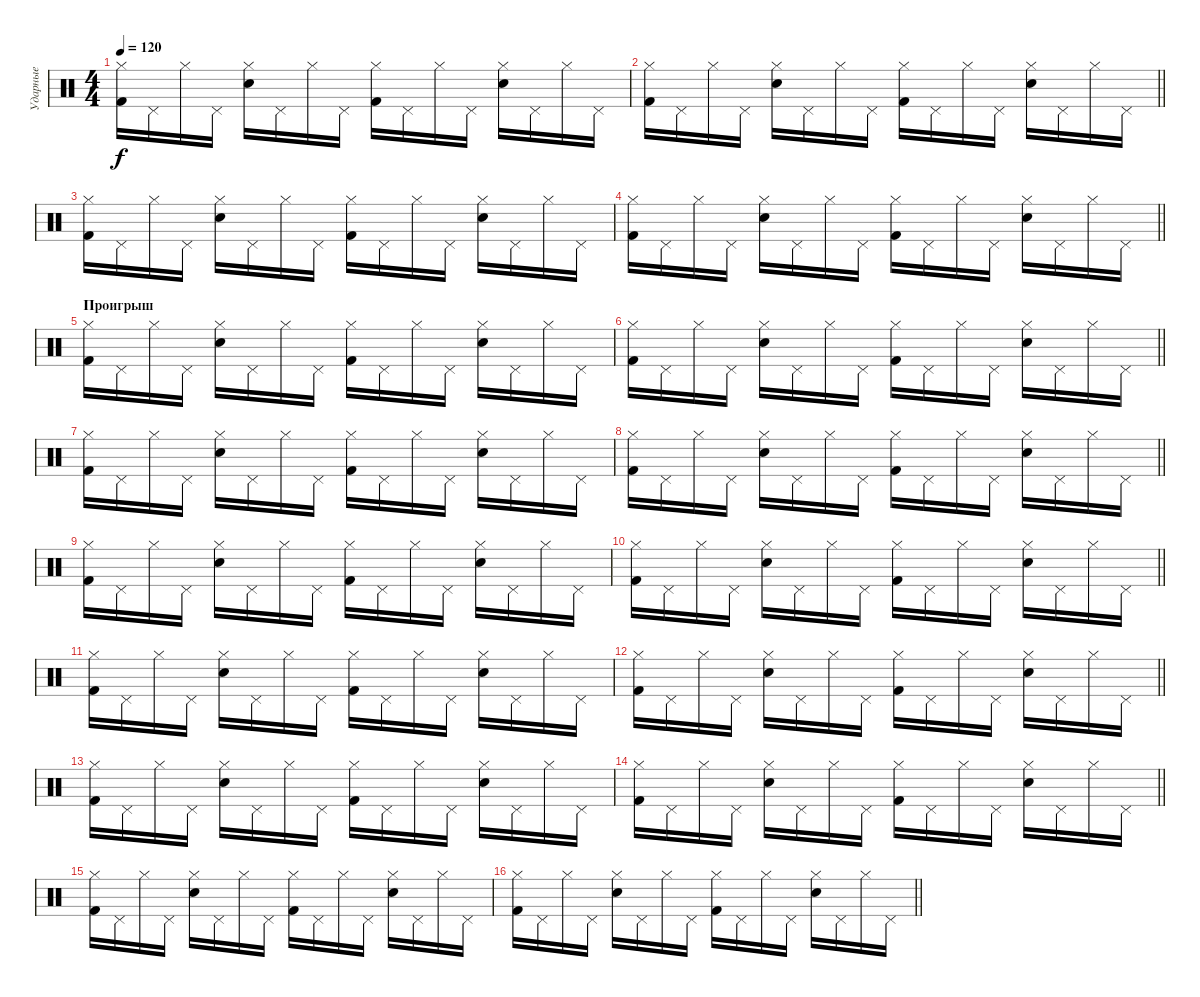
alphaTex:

\track ("Ударные" "Ударные") {instrument percussion}
\staff {score}
\articulation defaults
\ts (4 4)
\tempo 120
\clef neutral
\ks c
("Hi-Hat (closed)" "Kick (hit) 2").16{dy f} "Pedal Hi-Hat (hit)".16 "Hi-Hat (closed)".16 "Pedal Hi-Hat (hit)".16 ("Hi-Hat (closed)" "Snare (hit) 2").16 "Pedal Hi-Hat (hit)".16 "Hi-Hat (closed)".16 "Pedal Hi-Hat (hit)".16 ("Hi-Hat (closed)" "Kick (hit) 2").16 "Pedal Hi-Hat (hit)".16 "Hi-Hat (closed)".16 "Pedal Hi-Hat (hit)".16 ("Hi-Hat (closed)" "Snare (hit) 2").16 "Pedal Hi-Hat (hit)".16 "Hi-Hat (closed)".16 "Pedal Hi-Hat (hit)".16 |
\barLineRight lightlight
("Hi-Hat (closed)" "Kick (hit) 2").16 "Pedal Hi-Hat (hit)".16 "Hi-Hat (closed)".16 "Pedal Hi-Hat (hit)".16 ("Hi-Hat (closed)" "Snare (hit) 2").16 "Pedal Hi-Hat (hit)".16 "Hi-Hat (closed)".16 "Pedal Hi-Hat (hit)".16 ("Hi-Hat (closed)" "Kick (hit) 2").16 "Pedal Hi-Hat (hit)".16 "Hi-Hat (closed)".16 "Pedal Hi-Hat (hit)".16 ("Hi-Hat (closed)" "Snare (hit) 2").16 "Pedal Hi-Hat (hit)".16 "Hi-Hat (closed)".16 "Pedal Hi-Hat (hit)".16 |
("Hi-Hat (closed)" "Kick (hit) 2").16 "Pedal Hi-Hat (hit)".16 "Hi-Hat (closed)".16 "Pedal Hi-Hat (hit)".16 ("Hi-Hat (closed)" "Snare (hit) 2").16 "Pedal Hi-Hat (hit)".16 "Hi-Hat (closed)".16 "Pedal Hi-Hat (hit)".16 ("Hi-Hat (closed)" "Kick (hit) 2").16 "Pedal Hi-Hat (hit)".16 "Hi-Hat (closed)".16 "Pedal Hi-Hat (hit)".16 ("Hi-Hat (closed)" "Snare (hit) 2").16 "Pedal Hi-Hat (hit)".16 "Hi-Hat (closed)".16 "Pedal Hi-Hat (hit)".16 |
\barLineRight lightlight
("Hi-Hat (closed)" "Kick (hit) 2").16 "Pedal Hi-Hat (hit)".16 "Hi-Hat (closed)".16 "Pedal Hi-Hat (hit)".16 ("Hi-Hat (closed)" "Snare (hit) 2").16 "Pedal Hi-Hat (hit)".16 "Hi-Hat (closed)".16 "Pedal Hi-Hat (hit)".16 ("Hi-Hat (closed)" "Kick (hit) 2").16 "Pedal Hi-Hat (hit)".16 "Hi-Hat (closed)".16 "Pedal Hi-Hat (hit)".16 ("Hi-Hat (closed)" "Snare (hit) 2").16 "Pedal Hi-Hat (hit)".16 "Hi-Hat (closed)".16 "Pedal Hi-Hat (hit)".16 |
\section ("" "Проигрыш")
("Hi-Hat (closed)" "Kick (hit) 2").16 "Pedal Hi-Hat (hit)".16 "Hi-Hat (closed)".16 "Pedal Hi-Hat (hit)".16 ("Hi-Hat (closed)" "Snare (hit) 2").16 "Pedal Hi-Hat (hit)".16 "Hi-Hat (closed)".16 "Pedal Hi-Hat (hit)".16 ("Hi-Hat (closed)" "Kick (hit) 2").16 "Pedal Hi-Hat (hit)".16 "Hi-Hat (closed)".16 "Pedal Hi-Hat (hit)".16 ("Hi-Hat (closed)" "Snare (hit) 2").16 "Pedal Hi-Hat (hit)".16 "Hi-Hat (closed)".16 "Pedal Hi-Hat (hit)".16 |
\barLineRight lightlight
("Hi-Hat (closed)" "Kick (hit) 2").16 "Pedal Hi-Hat (hit)".16 "Hi-Hat (closed)".16 "Pedal Hi-Hat (hit)".16 ("Hi-Hat (closed)" "Snare (hit) 2").16 "Pedal Hi-Hat (hit)".16 "Hi-Hat (closed)".16 "Pedal Hi-Hat (hit)".16 ("Hi-Hat (closed)" "Kick (hit) 2").16 "Pedal Hi-Hat (hit)".16 "Hi-Hat (closed)".16 "Pedal Hi-Hat (hit)".16 ("Hi-Hat (closed)" "Snare (hit) 2").16 "Pedal Hi-Hat (hit)".16 "Hi-Hat (closed)".16 "Pedal Hi-Hat (hit)".16 |
("Hi-Hat (closed)" "Kick (hit) 2").16 "Pedal Hi-Hat (hit)".16 "Hi-Hat (closed)".16 "Pedal Hi-Hat (hit)".16 ("Hi-Hat (closed)" "Snare (hit) 2").16 "Pedal Hi-Hat (hit)".16 "Hi-Hat (closed)".16 "Pedal Hi-Hat (hit)".16 ("Hi-Hat (closed)" "Kick (hit) 2").16 "Pedal Hi-Hat (hit)".16 "Hi-Hat (closed)".16 "Pedal Hi-Hat (hit)".16 ("Hi-Hat (closed)" "Snare (hit) 2").16 "Pedal Hi-Hat (hit)".16 "Hi-Hat (closed)".16 "Pedal Hi-Hat (hit)".16 |
\barLineRight lightlight
("Hi-Hat (closed)" "Kick (hit) 2").16 "Pedal Hi-Hat (hit)".16 "Hi-Hat (closed)".16 "Pedal Hi-Hat (hit)".16 ("Hi-Hat (closed)" "Snare (hit) 2").16 "Pedal Hi-Hat (hit)".16 "Hi-Hat (closed)".16 "Pedal Hi-Hat (hit)".16 ("Hi-Hat (closed)" "Kick (hit) 2").16 "Pedal Hi-Hat (hit)".16 "Hi-Hat (closed)".16 "Pedal Hi-Hat (hit)".16 ("Hi-Hat (closed)" "Snare (hit) 2").16 "Pedal Hi-Hat (hit)".16 "Hi-Hat (closed)".16 "Pedal Hi-Hat (hit)".16 |
("Hi-Hat (closed)" "Kick (hit) 2").16 "Pedal Hi-Hat (hit)".16 "Hi-Hat (closed)".16 "Pedal Hi-Hat (hit)".16 ("Hi-Hat (closed)" "Snare (hit) 2").16 "Pedal Hi-Hat (hit)".16 "Hi-Hat (closed)".16 "Pedal Hi-Hat (hit)".16 ("Hi-Hat (closed)" "Kick (hit) 2").16 "Pedal Hi-Hat (hit)".16 "Hi-Hat (closed)".16 "Pedal Hi-Hat (hit)".16 ("Hi-Hat (closed)" "Snare (hit) 2").16 "Pedal Hi-Hat (hit)".16 "Hi-Hat (closed)".16 "Pedal Hi-Hat (hit)".16 |
\barLineRight lightlight
("Hi-Hat (closed)" "Kick (hit) 2").16 "Pedal Hi-Hat (hit)".16 "Hi-Hat (closed)".16 "Pedal Hi-Hat (hit)".16 ("Hi-Hat (closed)" "Snare (hit) 2").16 "Pedal Hi-Hat (hit)".16 "Hi-Hat (closed)".16 "Pedal Hi-Hat (hit)".16 ("Hi-Hat (closed)" "Kick (hit) 2").16 "Pedal Hi-Hat (hit)".16 "Hi-Hat (closed)".16 "Pedal Hi-Hat (hit)".16 ("Hi-Hat (closed)" "Snare (hit) 2").16 "Pedal Hi-Hat (hit)".16 "Hi-Hat (closed)".16 "Pedal Hi-Hat (hit)".16 |
("Hi-Hat (closed)" "Kick (hit) 2").16 "Pedal Hi-Hat (hit)".16 "Hi-Hat (closed)".16 "Pedal Hi-Hat (hit)".16 ("Hi-Hat (closed)" "Snare (hit) 2").16 "Pedal Hi-Hat (hit)".16 "Hi-Hat (closed)".16 "Pedal Hi-Hat (hit)".16 ("Hi-Hat (closed)" "Kick (hit) 2").16 "Pedal Hi-Hat (hit)".16 "Hi-Hat (closed)".16 "Pedal Hi-Hat (hit)".16 ("Hi-Hat (closed)" "Snare (hit) 2").16 "Pedal Hi-Hat (hit)".16 "Hi-Hat (closed)".16 "Pedal Hi-Hat (hit)".16 |
\barLineRight lightlight
("Hi-Hat (closed)" "Kick (hit) 2").16 "Pedal Hi-Hat (hit)".16 "Hi-Hat (closed)".16 "Pedal Hi-Hat (hit)".16 ("Hi-Hat (closed)" "Snare (hit) 2").16 "Pedal Hi-Hat (hit)".16 "Hi-Hat (closed)".16 "Pedal Hi-Hat (hit)".16 ("Hi-Hat (closed)" "Kick (hit) 2").16 "Pedal Hi-Hat (hit)".16 "Hi-Hat (closed)".16 "Pedal Hi-Hat (hit)".16 ("Hi-Hat (closed)" "Snare (hit) 2").16 "Pedal Hi-Hat (hit)".16 "Hi-Hat (closed)".16 "Pedal Hi-Hat (hit)".16 |
("Hi-Hat (closed)" "Kick (hit) 2").16 "Pedal Hi-Hat (hit)".16 "Hi-Hat (closed)".16 "Pedal Hi-Hat (hit)".16 ("Hi-Hat (closed)" "Snare (hit) 2").16 "Pedal Hi-Hat (hit)".16 "Hi-Hat (closed)".16 "Pedal Hi-Hat (hit)".16 ("Hi-Hat (closed)" "Kick (hit) 2").16 "Pedal Hi-Hat (hit)".16 "Hi-Hat (closed)".16 "Pedal Hi-Hat (hit)".16 ("Hi-Hat (closed)" "Snare (hit) 2").16 "Pedal Hi-Hat (hit)".16 "Hi-Hat (closed)".16 "Pedal Hi-Hat (hit)".16 |
\barLineRight lightlight
("Hi-Hat (closed)" "Kick (hit) 2").16 "Pedal Hi-Hat (hit)".16 "Hi-Hat (closed)".16 "Pedal Hi-Hat (hit)".16 ("Hi-Hat (closed)" "Snare (hit) 2").16 "Pedal Hi-Hat (hit)".16 "Hi-Hat (closed)".16 "Pedal Hi-Hat (hit)".16 ("Hi-Hat (closed)" "Kick (hit) 2").16 "Pedal Hi-Hat (hit)".16 "Hi-Hat (closed)".16 "Pedal Hi-Hat (hit)".16 ("Hi-Hat (closed)" "Snare (hit) 2").16 "Pedal Hi-Hat (hit)".16 "Hi-Hat (closed)".16 "Pedal Hi-Hat (hit)".16 |
("Hi-Hat (closed)" "Kick (hit) 2").16 "Pedal Hi-Hat (hit)".16 "Hi-Hat (closed)".16 "Pedal Hi-Hat (hit)".16 ("Hi-Hat (closed)" "Snare (hit) 2").16 "Pedal Hi-Hat (hit)".16 "Hi-Hat (closed)".16 "Pedal Hi-Hat (hit)".16 ("Hi-Hat (closed)" "Kick (hit) 2").16 "Pedal Hi-Hat (hit)".16 "Hi-Hat (closed)".16 "Pedal Hi-Hat (hit)".16 ("Hi-Hat (closed)" "Snare (hit) 2").16 "Pedal Hi-Hat (hit)".16 "Hi-Hat (closed)".16 "Pedal Hi-Hat (hit)".16 |
\barLineRight lightlight
("Hi-Hat (closed)" "Kick (hit) 2").16 "Pedal Hi-Hat (hit)".16 "Hi-Hat (closed)".16 "Pedal Hi-Hat (hit)".16 ("Hi-Hat (closed)" "Snare (hit) 2").16 "Pedal Hi-Hat (hit)".16 "Hi-Hat (closed)".16 "Pedal Hi-Hat (hit)".16 ("Hi-Hat (closed)" "Kick (hit) 2").16 "Pedal Hi-Hat (hit)".16 "Hi-Hat (closed)".16 "Pedal Hi-Hat (hit)".16 ("Hi-Hat (closed)" "Snare (hit) 2").16 "Pedal Hi-Hat (hit)".16 "Hi-Hat (closed)".16 "Pedal Hi-Hat (hit)".16
